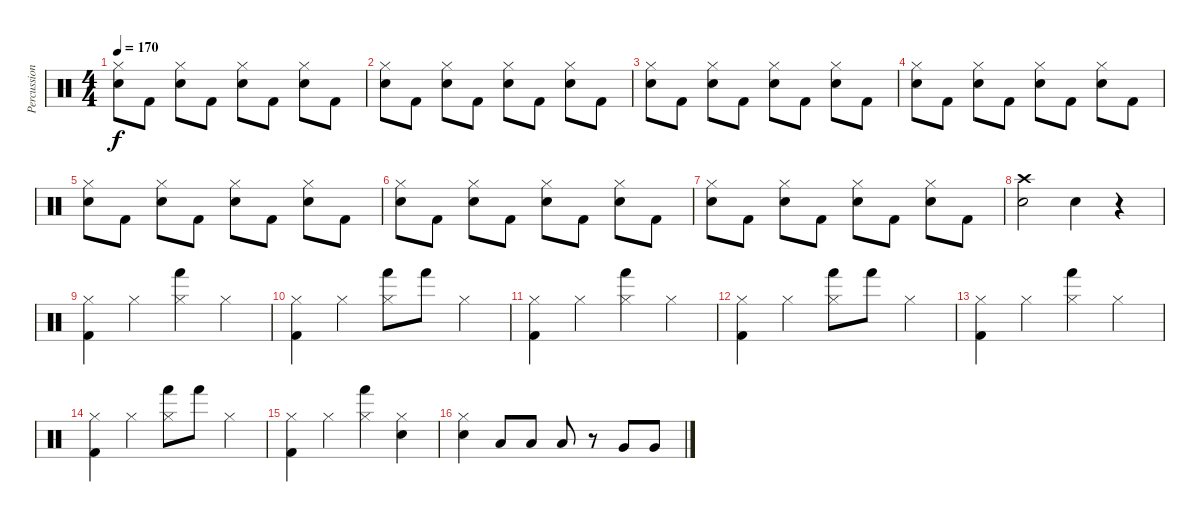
\track ("Percussion" "Percussion") {instrument percussion}
\staff {score}
\articulation defaults
\ts (4 4)
\tempo 170
\clef neutral
\ks c
("Hi-Hat (closed)" "Electric Snare (hit)").8{dy f} "Kick (hit) 2".8 ("Hi-Hat (closed)" "Electric Snare (hit)").8 "Kick (hit) 2".8 ("Hi-Hat (closed)" "Electric Snare (hit)").8 "Kick (hit) 2".8 ("Hi-Hat (closed)" "Electric Snare (hit)").8 "Kick (hit) 2".8 |
("Hi-Hat (closed)" "Electric Snare (hit)").8 "Kick (hit) 2".8 ("Hi-Hat (closed)" "Electric Snare (hit)").8 "Kick (hit) 2".8 ("Hi-Hat (closed)" "Electric Snare (hit)").8 "Kick (hit) 2".8 ("Hi-Hat (closed)" "Electric Snare (hit)").8 "Kick (hit) 2".8 |
("Hi-Hat (closed)" "Electric Snare (hit)").8 "Kick (hit) 2".8 ("Hi-Hat (closed)" "Electric Snare (hit)").8 "Kick (hit) 2".8 ("Hi-Hat (closed)" "Electric Snare (hit)").8 "Kick (hit) 2".8 ("Hi-Hat (closed)" "Electric Snare (hit)").8 "Kick (hit) 2".8 |
("Hi-Hat (closed)" "Electric Snare (hit)").8 "Kick (hit) 2".8 ("Hi-Hat (closed)" "Electric Snare (hit)").8 "Kick (hit) 2".8 ("Hi-Hat (closed)" "Electric Snare (hit)").8 "Kick (hit) 2".8 ("Hi-Hat (closed)" "Electric Snare (hit)").8 "Kick (hit) 2".8 |
("Hi-Hat (closed)" "Electric Snare (hit)").8 "Kick (hit) 2".8 ("Hi-Hat (closed)" "Electric Snare (hit)").8 "Kick (hit) 2".8 ("Hi-Hat (closed)" "Electric Snare (hit)").8 "Kick (hit) 2".8 ("Hi-Hat (closed)" "Electric Snare (hit)").8 "Kick (hit) 2".8 |
("Hi-Hat (closed)" "Electric Snare (hit)").8 "Kick (hit) 2".8 ("Hi-Hat (closed)" "Electric Snare (hit)").8 "Kick (hit) 2".8 ("Hi-Hat (closed)" "Electric Snare (hit)").8 "Kick (hit) 2".8 ("Hi-Hat (closed)" "Electric Snare (hit)").8 "Kick (hit) 2".8 |
("Hi-Hat (closed)" "Electric Snare (hit)").8 "Kick (hit) 2".8 ("Hi-Hat (closed)" "Electric Snare (hit)").8 "Kick (hit) 2".8 ("Hi-Hat (closed)" "Electric Snare (hit)").8 "Kick (hit) 2".8 ("Hi-Hat (closed)" "Electric Snare (hit)").8 "Kick (hit) 2".8 |
("Crash high (hit)" "Electric Snare (hit)").2 "Electric Snare (hit)".4 r.4 |
("Hi-Hat (closed)" "Kick (hit) 2").4 "Hi-Hat (closed)".4 ("Hi-Hat (closed)" "Hand (hit)").4 "Hi-Hat (closed)".4 |
("Hi-Hat (closed)" "Kick (hit) 2").4 "Hi-Hat (closed)".4 ("Hi-Hat (closed)" "Hand (hit)").8 "Hand (hit)".8 "Hi-Hat (closed)".4 |
("Hi-Hat (closed)" "Kick (hit) 2").4 "Hi-Hat (closed)".4 ("Hi-Hat (closed)" "Hand (hit)").4 "Hi-Hat (closed)".4 |
("Hi-Hat (closed)" "Kick (hit) 2").4 "Hi-Hat (closed)".4 ("Hi-Hat (closed)" "Hand (hit)").8 "Hand (hit)".8 "Hi-Hat (closed)".4 |
("Hi-Hat (closed)" "Kick (hit) 2").4 "Hi-Hat (closed)".4 ("Hi-Hat (closed)" "Hand (hit)").4 "Hi-Hat (closed)".4 |
("Hi-Hat (closed)" "Kick (hit) 2").4 "Hi-Hat (closed)".4 ("Hi-Hat (closed)" "Hand (hit)").8 "Hand (hit)".8 "Hi-Hat (closed)".4 |
("Hi-Hat (closed)" "Kick (hit) 2").4 "Hi-Hat (closed)".4 ("Hi-Hat (closed)" "Hand (hit)").4 ("Hi-Hat (closed)" "Electric Snare (hit)").4 |
("Hi-Hat (closed)" "Electric Snare (hit)").4 "Low Tom (hit)".8 "Low Tom (hit)".8 "Low Tom (hit)".8 r.8 "Very Low Tom (hit)".8 "Very Low Tom (hit)".8
